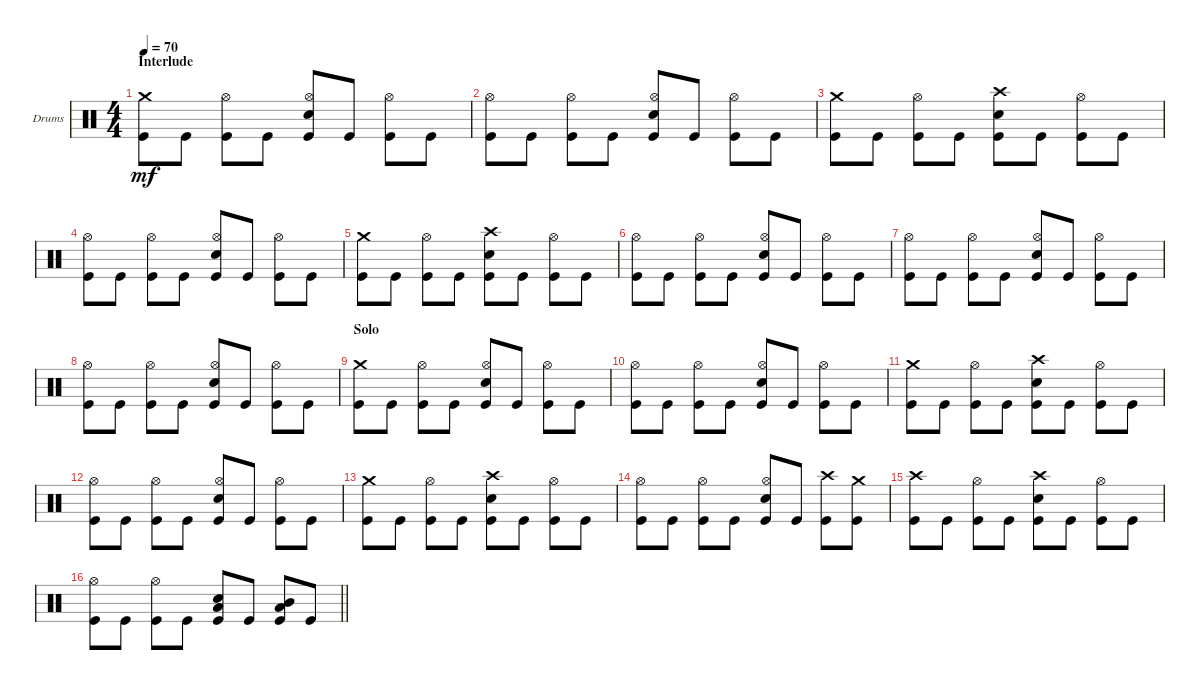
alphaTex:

\bracketExtendMode groupsimilarinstruments
\firstSystemTrackNameOrientation horizontal
\otherSystemsTrackNameOrientation horizontal
\track ("Drumkit" "Drums") {instrument percussion}
\staff {score}
\articulation defaults
\ts (4 4)
\section ("" "Interlude")
\scale
0.25
\tempo 70
\accidentals auto
\clef neutral
\ottava regular
\simile none
\scale
0.25
\ks c
("Kick (hit)" "Crash medium (hit)").8{dy mf} "Kick (hit)".8 ("Kick (hit)" "Hi-Hat (open)").8 "Kick (hit)".8 ("Kick (hit)" "Hi-Hat (open)" "Snare (hit) 2").8 "Kick (hit)".8 ("Kick (hit)" "Hi-Hat (open)").8 "Kick (hit)".8 |
\scale
0.25
\scale
0.25 ("Kick (hit)" "Hi-Hat (open)").8 "Kick (hit)".8 ("Kick (hit)" "Hi-Hat (open)").8 "Kick (hit)".8 ("Kick (hit)" "Hi-Hat (open)" "Snare (hit) 2").8 "Kick (hit)".8 ("Kick (hit)" "Hi-Hat (open)").8 "Kick (hit)".8 |
\scale
0.25
\scale
0.25 ("Kick (hit)" "Crash medium (hit)").8 "Kick (hit)".8 ("Kick (hit)" "Hi-Hat (open)").8 "Kick (hit)".8 ("Kick (hit)" "Snare (hit) 2" "Crash high (hit)").8 "Kick (hit)".8 ("Kick (hit)" "Hi-Hat (open)").8 "Kick (hit)".8 |
\scale
0.25
\scale
0.25 ("Kick (hit)" "Hi-Hat (open)").8 "Kick (hit)".8 ("Kick (hit)" "Hi-Hat (open)").8 "Kick (hit)".8 ("Kick (hit)" "Hi-Hat (open)" "Snare (hit) 2").8 "Kick (hit)".8 ("Kick (hit)" "Hi-Hat (open)").8 "Kick (hit)".8 |
\scale
0.280936
\scale
0.25 ("Kick (hit)" "Crash medium (hit)").8 "Kick (hit)".8 ("Kick (hit)" "Hi-Hat (open)").8 "Kick (hit)".8 ("Kick (hit)" "Snare (hit) 2" "Crash high (hit)").8 "Kick (hit)".8 ("Kick (hit)" "Hi-Hat (open)").8 "Kick (hit)".8 |
\scale
0.280936
\scale
0.25 ("Kick (hit)" "Hi-Hat (open)").8 "Kick (hit)".8 ("Kick (hit)" "Hi-Hat (open)").8 "Kick (hit)".8 ("Kick (hit)" "Hi-Hat (open)" "Snare (hit) 2").8 "Kick (hit)".8 ("Kick (hit)" "Hi-Hat (open)").8 "Kick (hit)".8 |
\scale
0.157191
\scale
0.25 ("Kick (hit)" "Hi-Hat (open)").8 "Kick (hit)".8 ("Kick (hit)" "Hi-Hat (open)").8 "Kick (hit)".8 ("Kick (hit)" "Hi-Hat (open)" "Snare (hit) 2").8 "Kick (hit)".8 ("Kick (hit)" "Hi-Hat (open)").8 "Kick (hit)".8 |
\scale
0.280936
\scale
0.25 ("Kick (hit)" "Hi-Hat (open)").8 "Kick (hit)".8 ("Kick (hit)" "Hi-Hat (open)").8 "Kick (hit)".8 ("Kick (hit)" "Hi-Hat (open)" "Snare (hit) 2").8 "Kick (hit)".8 ("Kick (hit)" "Hi-Hat (open)").8 "Kick (hit)".8 |
\section ("" "Solo")
\scale
0.215596
\scale
0.25 ("Kick (hit)" "Crash medium (hit)").8 "Kick (hit)".8 ("Kick (hit)" "Hi-Hat (open)").8 "Kick (hit)".8 ("Kick (hit)" "Hi-Hat (open)" "Snare (hit) 2").8 "Kick (hit)".8 ("Kick (hit)" "Hi-Hat (open)").8 "Kick (hit)".8 |
\scale
0.284404
\scale
0.25 ("Kick (hit)" "Hi-Hat (open)").8 "Kick (hit)".8 ("Kick (hit)" "Hi-Hat (open)").8 "Kick (hit)".8 ("Kick (hit)" "Hi-Hat (open)" "Snare (hit) 2").8 "Kick (hit)".8 ("Kick (hit)" "Hi-Hat (open)").8 "Kick (hit)".8 |
\scale
0.215596
\scale
0.25 ("Kick (hit)" "Crash medium (hit)").8 "Kick (hit)".8 ("Kick (hit)" "Hi-Hat (open)").8 "Kick (hit)".8 ("Kick (hit)" "Snare (hit) 2" "Crash high (hit)").8 "Kick (hit)".8 ("Kick (hit)" "Hi-Hat (open)").8 "Kick (hit)".8 |
\scale
0.284404
\scale
0.25 ("Kick (hit)" "Hi-Hat (open)").8 "Kick (hit)".8 ("Kick (hit)" "Hi-Hat (open)").8 "Kick (hit)".8 ("Kick (hit)" "Hi-Hat (open)" "Snare (hit) 2").8 "Kick (hit)".8 ("Kick (hit)" "Hi-Hat (open)").8 "Kick (hit)".8 |
\scale
0.215596
\scale
0.25 ("Kick (hit)" "Crash medium (hit)").8 "Kick (hit)".8 ("Kick (hit)" "Hi-Hat (open)").8 "Kick (hit)".8 ("Kick (hit)" "Snare (hit) 2" "Crash high (hit)").8 "Kick (hit)".8 ("Kick (hit)" "Hi-Hat (open)").8 "Kick (hit)".8 |
\scale
0.284404
\scale
0.25 ("Kick (hit)" "Hi-Hat (open)").8 "Kick (hit)".8 ("Kick (hit)" "Hi-Hat (open)").8 "Kick (hit)".8 ("Kick (hit)" "Hi-Hat (open)" "Snare (hit) 2").8 "Kick (hit)".8 ("Kick (hit)" "Crash high (hit)").8 ("Kick (hit)" "Crash medium (hit)").8 |
\scale
0.215596
\scale
0.25 ("Kick (hit)" "Crash high (hit)").8 "Kick (hit)".8 ("Kick (hit)" "Hi-Hat (open)").8 "Kick (hit)".8 ("Kick (hit)" "Snare (hit) 2" "Crash high (hit)").8 "Kick (hit)".8 ("Kick (hit)" "Hi-Hat (open)").8 "Kick (hit)".8 |
\scale
0.284404
\scale
0.25
\barLineRight lightlight
("Kick (hit)" "Hi-Hat (open)").8 "Kick (hit)".8 ("Kick (hit)" "Hi-Hat (open)").8 "Kick (hit)".8 ("Snare (hit) 2" "Kick (hit)" "Low Tom (hit)").8 "Kick (hit)".8 ("Kick (hit)" "Mid Tom (hit)" "Low Tom (hit)").8 "Kick (hit)".8
